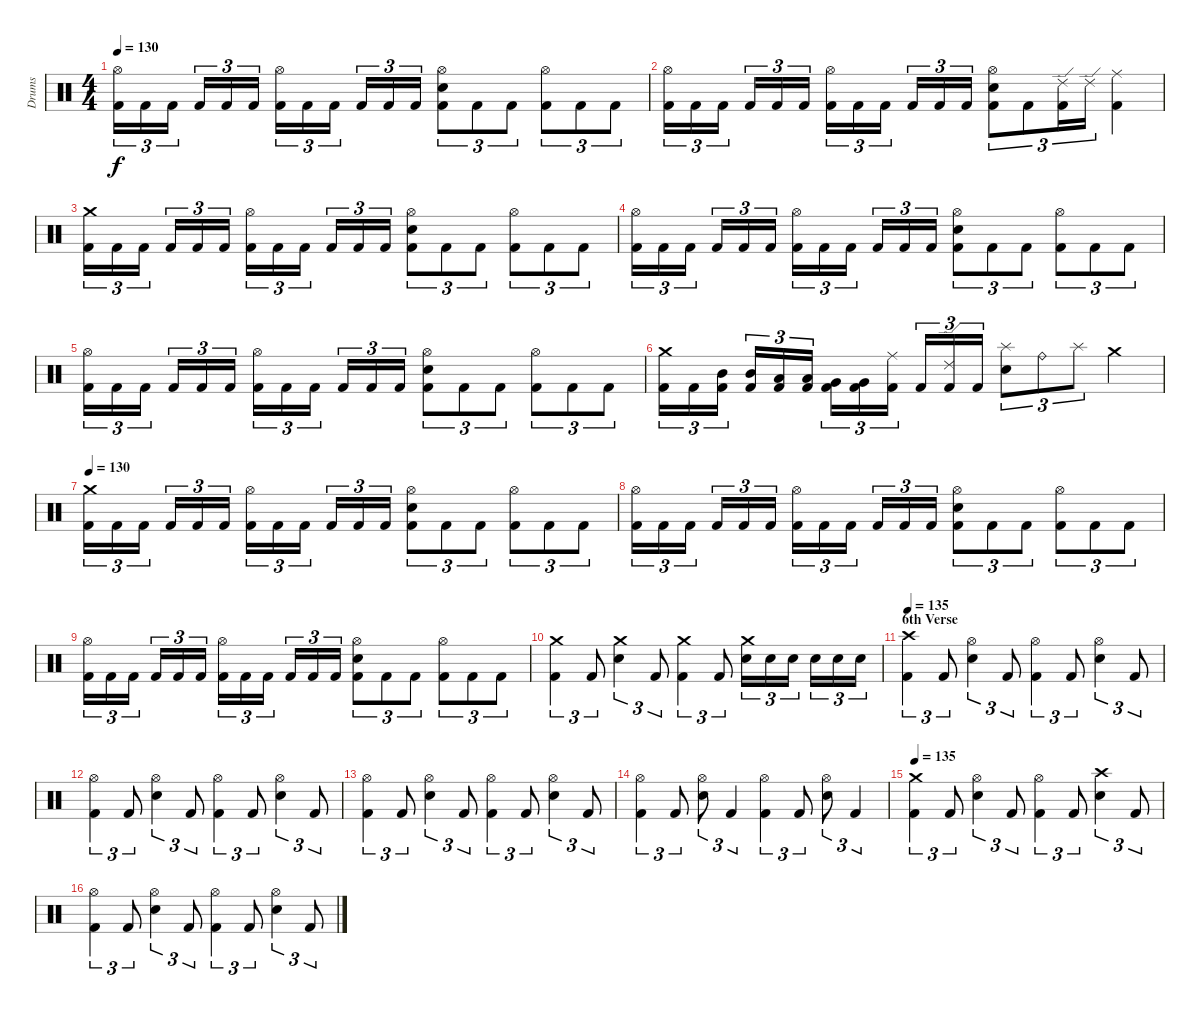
\track ("Drums" "Drums") {instrument percussion}
\staff {score}
\articulation defaults
\ts (4 4)
\tempo 130
\clef neutral
\ks c
("Hi-Hat (open)" "Kick (hit) 2").16{tu (3 2) dy f} "Kick (hit) 2".16{tu (3 2)} "Kick (hit) 2".16{tu (3 2)} "Kick (hit) 2".16{tu (3 2)} "Kick (hit) 2".16{tu (3 2)} "Kick (hit) 2".16{tu (3 2)} ("Hi-Hat (open)" "Kick (hit) 2").16{tu (3 2)} "Kick (hit) 2".16{tu (3 2)} "Kick (hit) 2".16{tu (3 2)} "Kick (hit) 2".16{tu (3 2)} "Kick (hit) 2".16{tu (3 2)} "Kick (hit) 2".16{tu (3 2)} ("Hi-Hat (open)" "Electric Snare (hit)" "Kick (hit) 2").8{tu (3 2)} "Kick (hit) 2".8{tu (3 2)} "Kick (hit) 2".8{tu (3 2)} ("Hi-Hat (open)" "Kick (hit) 2").8{tu (3 2)} "Kick (hit) 2".8{tu (3 2)} "Kick (hit) 2".8{tu (3 2)} |
("Hi-Hat (open)" "Kick (hit) 2").16{tu (3 2)} "Kick (hit) 2".16{tu (3 2)} "Kick (hit) 2".16{tu (3 2)} "Kick (hit) 2".16{tu (3 2)} "Kick (hit) 2".16{tu (3 2)} "Kick (hit) 2".16{tu (3 2)} ("Hi-Hat (open)" "Kick (hit) 2").16{tu (3 2)} "Kick (hit) 2".16{tu (3 2)} "Kick (hit) 2".16{tu (3 2)} "Kick (hit) 2".16{tu (3 2)} "Kick (hit) 2".16{tu (3 2)} "Kick (hit) 2".16{tu (3 2)} ("Hi-Hat (open)" "Electric Snare (hit)" "Kick (hit) 2").8{tu (3 2)} "Kick (hit) 2".8{tu (3 2)} ("Ride (edge) 2" "Kick (hit) 2").16{tu (3 2)} "Ride (edge) 2".16{tu (3 2)} ("Ride (middle)" "Kick (hit) 2").4 |
("Crash medium (hit)" "Kick (hit) 2").16{tu (3 2)} "Kick (hit) 2".16{tu (3 2)} "Kick (hit) 2".16{tu (3 2)} "Kick (hit) 2".16{tu (3 2)} "Kick (hit) 2".16{tu (3 2)} "Kick (hit) 2".16{tu (3 2)} ("Hi-Hat (open)" "Kick (hit) 2").16{tu (3 2)} "Kick (hit) 2".16{tu (3 2)} "Kick (hit) 2".16{tu (3 2)} "Kick (hit) 2".16{tu (3 2)} "Kick (hit) 2".16{tu (3 2)} "Kick (hit) 2".16{tu (3 2)} ("Hi-Hat (open)" "Electric Snare (hit)" "Kick (hit) 2").8{tu (3 2)} "Kick (hit) 2".8{tu (3 2)} "Kick (hit) 2".8{tu (3 2)} ("Hi-Hat (open)" "Kick (hit) 2").8{tu (3 2)} "Kick (hit) 2".8{tu (3 2)} "Kick (hit) 2".8{tu (3 2)} |
("Hi-Hat (open)" "Kick (hit) 2").16{tu (3 2)} "Kick (hit) 2".16{tu (3 2)} "Kick (hit) 2".16{tu (3 2)} "Kick (hit) 2".16{tu (3 2)} "Kick (hit) 2".16{tu (3 2)} "Kick (hit) 2".16{tu (3 2)} ("Hi-Hat (open)" "Kick (hit) 2").16{tu (3 2)} "Kick (hit) 2".16{tu (3 2)} "Kick (hit) 2".16{tu (3 2)} "Kick (hit) 2".16{tu (3 2)} "Kick (hit) 2".16{tu (3 2)} "Kick (hit) 2".16{tu (3 2)} ("Hi-Hat (open)" "Electric Snare (hit)" "Kick (hit) 2").8{tu (3 2)} "Kick (hit) 2".8{tu (3 2)} "Kick (hit) 2".8{tu (3 2)} ("Hi-Hat (open)" "Kick (hit) 2").8{tu (3 2)} "Kick (hit) 2".8{tu (3 2)} "Kick (hit) 2".8{tu (3 2)} |
("Hi-Hat (open)" "Kick (hit) 2").16{tu (3 2)} "Kick (hit) 2".16{tu (3 2)} "Kick (hit) 2".16{tu (3 2)} "Kick (hit) 2".16{tu (3 2)} "Kick (hit) 2".16{tu (3 2)} "Kick (hit) 2".16{tu (3 2)} ("Hi-Hat (open)" "Kick (hit) 2").16{tu (3 2)} "Kick (hit) 2".16{tu (3 2)} "Kick (hit) 2".16{tu (3 2)} "Kick (hit) 2".16{tu (3 2)} "Kick (hit) 2".16{tu (3 2)} "Kick (hit) 2".16{tu (3 2)} ("Hi-Hat (open)" "Electric Snare (hit)" "Kick (hit) 2").8{tu (3 2)} "Kick (hit) 2".8{tu (3 2)} "Kick (hit) 2".8{tu (3 2)} ("Hi-Hat (open)" "Kick (hit) 2").8{tu (3 2)} "Kick (hit) 2".8{tu (3 2)} "Kick (hit) 2".8{tu (3 2)} |
("Crash medium (hit)" "Kick (hit) 2").16{tu (3 2)} "Kick (hit) 2".16{tu (3 2)} ("Mid Tom (hit)" "Kick (hit) 2").16{tu (3 2)} ("Mid Tom (hit)" "Kick (hit) 2").16{tu (3 2)} ("Low Tom (hit)" "Kick (hit) 2").16{tu (3 2)} ("Low Tom (hit)" "Kick (hit) 2").16{tu (3 2)} ("Very Low Tom (hit)" "Kick (hit) 2").16{tu (3 2)} ("Very Low Tom (hit)" "Kick (hit) 2").16{tu (3 2)} ("Ride (middle)" "Kick (hit) 2").16{tu (3 2)} "Kick (hit) 2".16{tu (3 2)} ("Ride (edge) 2" "Kick (hit) 2").16{tu (3 2)} "Kick (hit) 2".16{tu (3 2)} ("Splash (hit)" "Electric Snare (hit)").8{tu (3 2)} "Ride (bell)".8{tu (3 2)} "Splash (hit)".8{tu (3 2)} "Crash medium (hit)".4 |
\tempo 130
("Crash medium (hit)" "Kick (hit) 2").16{tu (3 2)} "Kick (hit) 2".16{tu (3 2)} "Kick (hit) 2".16{tu (3 2)} "Kick (hit) 2".16{tu (3 2)} "Kick (hit) 2".16{tu (3 2)} "Kick (hit) 2".16{tu (3 2)} ("Hi-Hat (open)" "Kick (hit) 2").16{tu (3 2)} "Kick (hit) 2".16{tu (3 2)} "Kick (hit) 2".16{tu (3 2)} "Kick (hit) 2".16{tu (3 2)} "Kick (hit) 2".16{tu (3 2)} "Kick (hit) 2".16{tu (3 2)} ("Hi-Hat (open)" "Electric Snare (hit)" "Kick (hit) 2").8{tu (3 2)} "Kick (hit) 2".8{tu (3 2)} "Kick (hit) 2".8{tu (3 2)} ("Hi-Hat (open)" "Kick (hit) 2").8{tu (3 2)} "Kick (hit) 2".8{tu (3 2)} "Kick (hit) 2".8{tu (3 2)} |
("Hi-Hat (open)" "Kick (hit) 2").16{tu (3 2)} "Kick (hit) 2".16{tu (3 2)} "Kick (hit) 2".16{tu (3 2)} "Kick (hit) 2".16{tu (3 2)} "Kick (hit) 2".16{tu (3 2)} "Kick (hit) 2".16{tu (3 2)} ("Hi-Hat (open)" "Kick (hit) 2").16{tu (3 2)} "Kick (hit) 2".16{tu (3 2)} "Kick (hit) 2".16{tu (3 2)} "Kick (hit) 2".16{tu (3 2)} "Kick (hit) 2".16{tu (3 2)} "Kick (hit) 2".16{tu (3 2)} ("Hi-Hat (open)" "Electric Snare (hit)" "Kick (hit) 2").8{tu (3 2)} "Kick (hit) 2".8{tu (3 2)} "Kick (hit) 2".8{tu (3 2)} ("Hi-Hat (open)" "Kick (hit) 2").8{tu (3 2)} "Kick (hit) 2".8{tu (3 2)} "Kick (hit) 2".8{tu (3 2)} |
("Hi-Hat (open)" "Kick (hit) 2").16{tu (3 2)} "Kick (hit) 2".16{tu (3 2)} "Kick (hit) 2".16{tu (3 2)} "Kick (hit) 2".16{tu (3 2)} "Kick (hit) 2".16{tu (3 2)} "Kick (hit) 2".16{tu (3 2)} ("Hi-Hat (open)" "Kick (hit) 2").16{tu (3 2)} "Kick (hit) 2".16{tu (3 2)} "Kick (hit) 2".16{tu (3 2)} "Kick (hit) 2".16{tu (3 2)} "Kick (hit) 2".16{tu (3 2)} "Kick (hit) 2".16{tu (3 2)} ("Hi-Hat (open)" "Electric Snare (hit)" "Kick (hit) 2").8{tu (3 2)} "Kick (hit) 2".8{tu (3 2)} "Kick (hit) 2".8{tu (3 2)} ("Hi-Hat (open)" "Kick (hit) 2").8{tu (3 2)} "Kick (hit) 2".8{tu (3 2)} "Kick (hit) 2".8{tu (3 2)} |
("Crash medium (hit)" "Kick (hit) 2").4{tu (3 2)} "Kick (hit) 2".8{tu (3 2)} ("Crash medium (hit)" "Electric Snare (hit)").4{tu (3 2)} "Kick (hit) 2".8{tu (3 2)} ("Crash medium (hit)" "Kick (hit) 2").4{tu (3 2)} "Kick (hit) 2".8{tu (3 2)} ("Crash medium (hit)" "Electric Snare (hit)").16{tu (3 2)} "Electric Snare (hit)".16{tu (3 2)} "Electric Snare (hit)".16{tu (3 2)} "Electric Snare (hit)".16{tu (3 2)} "Electric Snare (hit)".16{tu (3 2)} "Electric Snare (hit)".16{tu (3 2)} |
\section ("" "6th Verse")
\tempo 135
("Crash high (hit)" "Kick (hit) 2").4{tu (3 2)} "Kick (hit) 2".8{tu (3 2)} ("Hi-Hat (open)" "Electric Snare (hit)").4{tu (3 2)} "Kick (hit) 2".8{tu (3 2)} ("Hi-Hat (open)" "Kick (hit) 2").4{tu (3 2)} "Kick (hit) 2".8{tu (3 2)} ("Hi-Hat (open)" "Electric Snare (hit)").4{tu (3 2)} "Kick (hit) 2".8{tu (3 2)} |
("Hi-Hat (open)" "Kick (hit) 2").4{tu (3 2)} "Kick (hit) 2".8{tu (3 2)} ("Hi-Hat (open)" "Electric Snare (hit)").4{tu (3 2)} "Kick (hit) 2".8{tu (3 2)} ("Hi-Hat (open)" "Kick (hit) 2").4{tu (3 2)} "Kick (hit) 2".8{tu (3 2)} ("Hi-Hat (open)" "Electric Snare (hit)").4{tu (3 2)} "Kick (hit) 2".8{tu (3 2)} |
("Hi-Hat (open)" "Kick (hit) 2").4{tu (3 2)} "Kick (hit) 2".8{tu (3 2)} ("Hi-Hat (open)" "Electric Snare (hit)").4{tu (3 2)} "Kick (hit) 2".8{tu (3 2)} ("Hi-Hat (open)" "Kick (hit) 2").4{tu (3 2)} "Kick (hit) 2".8{tu (3 2)} ("Hi-Hat (open)" "Electric Snare (hit)").4{tu (3 2)} "Kick (hit) 2".8{tu (3 2)} |
("Hi-Hat (open)" "Kick (hit) 2").4{tu (3 2)} "Kick (hit) 2".8{tu (3 2)} ("Hi-Hat (open)" "Electric Snare (hit)").8{tu (3 2)} "Kick (hit) 2".4{tu (3 2)} ("Hi-Hat (open)" "Kick (hit) 2").4{tu (3 2)} "Kick (hit) 2".8{tu (3 2)} ("Hi-Hat (open)" "Electric Snare (hit)").8{tu (3 2)} "Kick (hit) 2".4{tu (3 2)} |
\tempo 135
("Crash medium (hit)" "Kick (hit) 2").4{tu (3 2)} "Kick (hit) 2".8{tu (3 2)} ("Hi-Hat (open)" "Electric Snare (hit)").4{tu (3 2)} "Kick (hit) 2".8{tu (3 2)} ("Hi-Hat (open)" "Kick (hit) 2").4{tu (3 2)} "Kick (hit) 2".8{tu (3 2)} ("Crash high (hit)" "Electric Snare (hit)").4{tu (3 2)} "Kick (hit) 2".8{tu (3 2)} |
("Hi-Hat (open)" "Kick (hit) 2").4{tu (3 2)} "Kick (hit) 2".8{tu (3 2)} ("Hi-Hat (open)" "Electric Snare (hit)").4{tu (3 2)} "Kick (hit) 2".8{tu (3 2)} ("Hi-Hat (open)" "Kick (hit) 2").4{tu (3 2)} "Kick (hit) 2".8{tu (3 2)} ("Hi-Hat (open)" "Electric Snare (hit)").4{tu (3 2)} "Kick (hit) 2".8{tu (3 2)}
